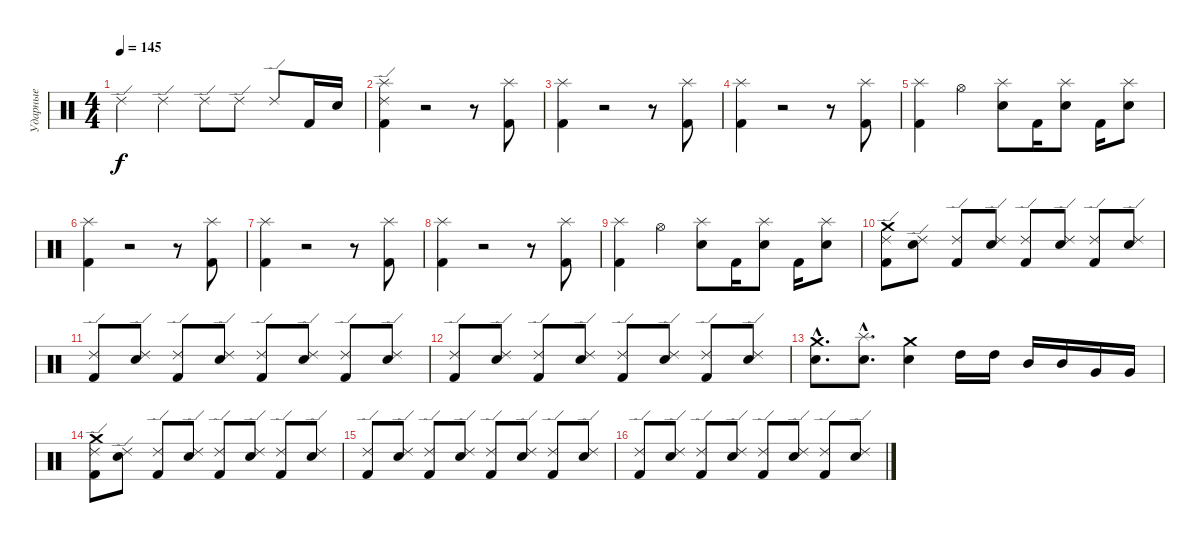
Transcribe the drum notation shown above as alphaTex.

\track ("Ударные" "Ударные") {instrument percussion}
\staff {score}
\articulation defaults
\ts (4 4)
\tempo 145
\clef neutral
\ks c "Ride (edge) 2".4{dy f} "Ride (edge) 2".4 "Ride (edge) 2".8 "Ride (edge) 2".8 "Ride (edge) 2".8 "Kick (hit) 2".16 "Snare (hit) 2".16
|
("Kick (hit) 2" "Splash (hit)" "Ride (edge) 2").4 r.2 r.8 ("Kick (hit) 2" "Splash (hit)").8 |
("Kick (hit) 2" "Splash (hit)").4 r.2 r.8 ("Kick (hit) 2" "Splash (hit)").8 |
("Kick (hit) 2" "Splash (hit)").4 r.2 r.8 ("Kick (hit) 2" "Splash (hit)").8 |
("Kick (hit) 2" "Splash (hit)").4 "Hi-Hat (open)".4 ("Snare (hit) 2" "Splash (hit)").8 "Kick (hit) 2".16 ("Snare (hit) 2" "Splash (hit)").8 "Kick (hit) 2".16 ("Snare (hit) 2" "Splash (hit)").8 |
("Kick (hit) 2" "Splash (hit)").4 r.2 r.8 ("Kick (hit) 2" "Splash (hit)").8 |
("Kick (hit) 2" "Splash (hit)").4 r.2 r.8 ("Kick (hit) 2" "Splash (hit)").8 |
("Kick (hit) 2" "Splash (hit)").4 r.2 r.8 ("Kick (hit) 2" "Splash (hit)").8 |
("Kick (hit) 2" "Splash (hit)").4 "Hi-Hat (open)".4 ("Snare (hit) 2" "Splash (hit)").8 "Kick (hit) 2".16 ("Snare (hit) 2" "Splash (hit)").8 "Kick (hit) 2".16 ("Snare (hit) 2" "Splash (hit)").8 |
("Ride (edge) 2" "Kick (hit) 2" "Crash medium (hit)").8 ("Ride (edge) 2" "Snare (hit) 2").8 ("Ride (edge) 2" "Kick (hit) 2").8 ("Ride (edge) 2" "Snare (hit) 2").8 ("Ride (edge) 2" "Kick (hit) 2").8 ("Ride (edge) 2" "Snare (hit) 2").8 ("Ride (edge) 2" "Kick (hit) 2").8 ("Ride (edge) 2" "Snare (hit) 2").8 |
("Ride (edge) 2" "Kick (hit) 2").8 ("Ride (edge) 2" "Snare (hit) 2").8 ("Ride (edge) 2" "Kick (hit) 2").8 ("Ride (edge) 2" "Snare (hit) 2").8 ("Ride (edge) 2" "Kick (hit) 2").8 ("Ride (edge) 2" "Snare (hit) 2").8 ("Ride (edge) 2" "Kick (hit) 2").8 ("Ride (edge) 2" "Snare (hit) 2").8 |
("Ride (edge) 2" "Kick (hit) 2").8 ("Ride (edge) 2" "Snare (hit) 2").8 ("Ride (edge) 2" "Kick (hit) 2").8 ("Ride (edge) 2" "Snare (hit) 2").8 ("Ride (edge) 2" "Kick (hit) 2").8 ("Ride (edge) 2" "Snare (hit) 2").8 ("Ride (edge) 2" "Kick (hit) 2").8 ("Ride (edge) 2" "Snare (hit) 2").8 |
("Snare (hit) 2"{hac} "Crash medium (hit)"{hac}).8{d} ("Snare (hit) 2"{hac} "Splash (hit)"{hac}).8{d} ("Snare (hit) 2" "Crash medium (hit)").4 "High Tom (hit)".16 "High Tom (hit)".16 "Mid Tom (hit)".16 "Mid Tom (hit)".16 "Very Low Tom (hit)".16 "Very Low Tom (hit)".16 |
("Ride (edge) 2" "Kick (hit) 2" "Crash medium (hit)").8 ("Ride (edge) 2" "Snare (hit) 2").8 ("Ride (edge) 2" "Kick (hit) 2").8 ("Ride (edge) 2" "Snare (hit) 2").8 ("Ride (edge) 2" "Kick (hit) 2").8 ("Ride (edge) 2" "Snare (hit) 2").8 ("Ride (edge) 2" "Kick (hit) 2").8 ("Ride (edge) 2" "Snare (hit) 2").8 |
("Ride (edge) 2" "Kick (hit) 2").8 ("Ride (edge) 2" "Snare (hit) 2").8 ("Ride (edge) 2" "Kick (hit) 2").8 ("Ride (edge) 2" "Snare (hit) 2").8 ("Ride (edge) 2" "Kick (hit) 2").8 ("Ride (edge) 2" "Snare (hit) 2").8 ("Ride (edge) 2" "Kick (hit) 2").8 ("Ride (edge) 2" "Snare (hit) 2").8 |
("Ride (edge) 2" "Kick (hit) 2").8 ("Ride (edge) 2" "Snare (hit) 2").8 ("Ride (edge) 2" "Kick (hit) 2").8 ("Ride (edge) 2" "Snare (hit) 2").8 ("Ride (edge) 2" "Kick (hit) 2").8 ("Ride (edge) 2" "Snare (hit) 2").8 ("Ride (edge) 2" "Kick (hit) 2").8 ("Ride (edge) 2" "Snare (hit) 2").8
